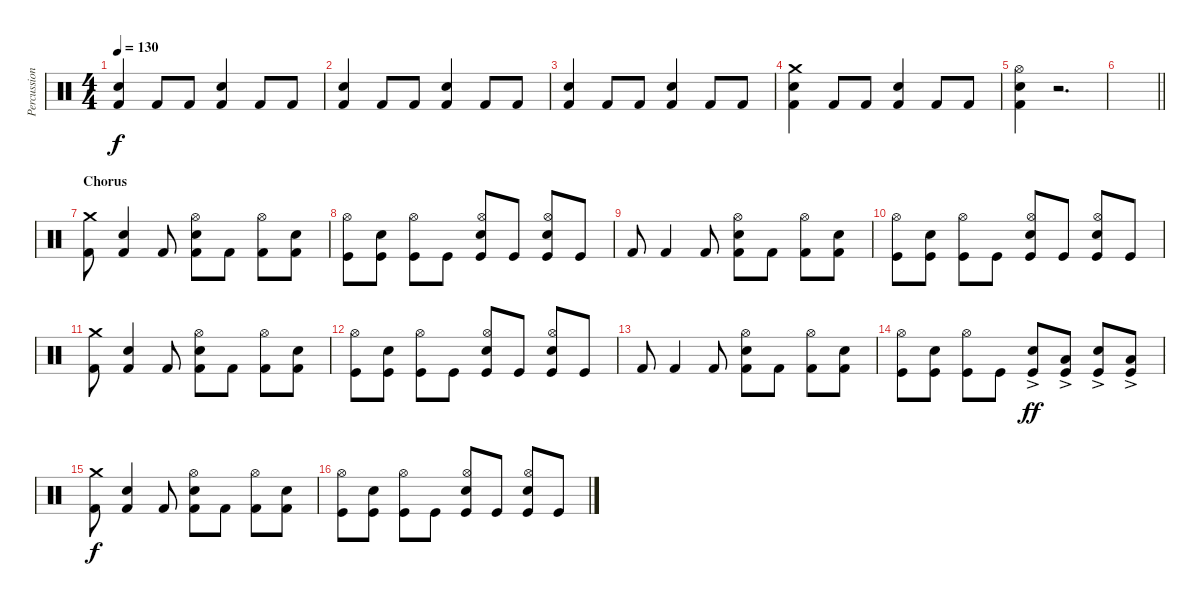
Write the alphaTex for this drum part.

\track ("Percussion" "Percussion") {instrument percussion}
\staff {score}
\articulation defaults
\ts (4 4)
\tempo 130
\clef neutral
\ks c
("Snare (hit) 2" "Kick (hit) 2").4{dy f} "Kick (hit) 2".8 "Kick (hit) 2".8 ("Snare (hit) 2" "Kick (hit) 2").4 "Kick (hit) 2".8 "Kick (hit) 2".8 |
("Snare (hit) 2" "Kick (hit) 2").4 "Kick (hit) 2".8 "Kick (hit) 2".8 ("Snare (hit) 2" "Kick (hit) 2").4 "Kick (hit) 2".8 "Kick (hit) 2".8 |
("Snare (hit) 2" "Kick (hit) 2").4 "Kick (hit) 2".8 "Kick (hit) 2".8 ("Snare (hit) 2" "Kick (hit) 2").4 "Kick (hit) 2".8 "Kick (hit) 2".8 |
("Crash medium (hit)" "Snare (hit) 2" "Kick (hit) 2").4 "Kick (hit) 2".8 "Kick (hit) 2".8 ("Snare (hit) 2" "Kick (hit) 2").4 "Kick (hit) 2".8 "Kick (hit) 2".8 |
("Hi-Hat (open)" "Snare (hit) 2" "Kick (hit) 2").4 r.2{d} |
\barLineRight lightlight
|
\section ("" "Chorus")
("Crash medium (hit)" "Kick (hit) 2").8 ("Snare (hit) 2" "Kick (hit) 2").4 "Kick (hit) 2".8 ("Hi-Hat (open)" "Snare (hit) 2" "Kick (hit) 2").8 "Kick (hit) 2".8 ("Hi-Hat (open)" "Kick (hit) 2").8 ("Snare (hit) 2" "Kick (hit) 2").8 |
("Hi-Hat (open)" "Kick (hit)").8 ("Snare (hit) 2" "Kick (hit)").8 ("Hi-Hat (open)" "Kick (hit)").8 "Kick (hit)".8 ("Hi-Hat (open)" "Snare (hit) 2" "Kick (hit)").8 "Kick (hit)".8 ("Hi-Hat (open)" "Snare (hit) 2" "Kick (hit)").8 "Kick (hit)".8 |
"Kick (hit) 2".8 "Kick (hit) 2".4 "Kick (hit) 2".8 ("Hi-Hat (open)" "Snare (hit) 2" "Kick (hit) 2").8 "Kick (hit) 2".8 ("Hi-Hat (open)" "Kick (hit) 2").8 ("Snare (hit) 2" "Kick (hit) 2").8 |
("Hi-Hat (open)" "Kick (hit)").8 ("Snare (hit) 2" "Kick (hit)").8 ("Hi-Hat (open)" "Kick (hit)").8 "Kick (hit)".8 ("Hi-Hat (open)" "Snare (hit) 2" "Kick (hit)").8 "Kick (hit)".8 ("Hi-Hat (open)" "Snare (hit) 2" "Kick (hit)").8 "Kick (hit)".8 |
("Crash medium (hit)" "Kick (hit) 2").8 ("Snare (hit) 2" "Kick (hit) 2").4 "Kick (hit) 2".8 ("Hi-Hat (open)" "Snare (hit) 2" "Kick (hit) 2").8 "Kick (hit) 2".8 ("Hi-Hat (open)" "Kick (hit) 2").8 ("Snare (hit) 2" "Kick (hit) 2").8 |
("Hi-Hat (open)" "Kick (hit)").8 ("Snare (hit) 2" "Kick (hit)").8 ("Hi-Hat (open)" "Kick (hit)").8 "Kick (hit)".8 ("Hi-Hat (open)" "Snare (hit) 2" "Kick (hit)").8 "Kick (hit)".8 ("Hi-Hat (open)" "Snare (hit) 2" "Kick (hit)").8 "Kick (hit)".8 |
"Kick (hit) 2".8 "Kick (hit) 2".4 "Kick (hit) 2".8 ("Hi-Hat (open)" "Snare (hit) 2" "Kick (hit) 2").8 "Kick (hit) 2".8 ("Hi-Hat (open)" "Kick (hit) 2").8 ("Snare (hit) 2" "Kick (hit) 2").8 |
("Hi-Hat (open)" "Kick (hit)").8 ("Snare (hit) 2" "Kick (hit)").8 ("Hi-Hat (open)" "Kick (hit)").8 "Kick (hit)".8 ("Snare (hit) 2"{ac} "Kick (hit)").8{dy ff} ("Low Floor Tom (hit)"{ac} "Kick (hit)").8 ("Snare (hit) 2"{ac} "Kick (hit)").8 ("Low Floor Tom (hit)"{ac} "Kick (hit)").8 |
("Crash medium (hit)" "Kick (hit) 2").8{dy f} ("Snare (hit) 2" "Kick (hit) 2").4 "Kick (hit) 2".8 ("Hi-Hat (open)" "Snare (hit) 2" "Kick (hit) 2").8 "Kick (hit) 2".8 ("Hi-Hat (open)" "Kick (hit) 2").8 ("Snare (hit) 2" "Kick (hit) 2").8 |
("Hi-Hat (open)" "Kick (hit)").8 ("Snare (hit) 2" "Kick (hit)").8 ("Hi-Hat (open)" "Kick (hit)").8 "Kick (hit)".8 ("Hi-Hat (open)" "Snare (hit) 2" "Kick (hit)").8 "Kick (hit)".8 ("Hi-Hat (open)" "Snare (hit) 2" "Kick (hit)").8 "Kick (hit)".8
